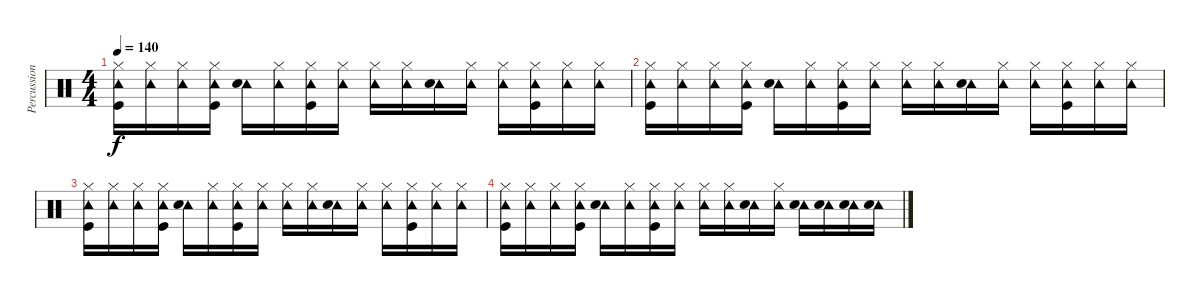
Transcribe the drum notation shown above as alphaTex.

\track ("Percussion" "Percussion") {instrument percussion}
\staff {score}
\articulation defaults
\ts (4 4)
\tempo 140
\clef neutral
\ks c
("Tambourine (hit)" "Hi-Hat (closed)" "Kick (hit)").16{dy f} ("Tambourine (hit)" "Hi-Hat (closed)").16 ("Tambourine (hit)" "Hi-Hat (closed)").16 ("Tambourine (hit)" "Hi-Hat (closed)" "Kick (hit)").16 ("Tambourine (hit)" "Electric Snare (hit)").16 ("Tambourine (hit)" "Hi-Hat (closed)").16 ("Tambourine (hit)" "Hi-Hat (closed)" "Kick (hit)").16 ("Tambourine (hit)" "Hi-Hat (closed)").16 ("Tambourine (hit)" "Hi-Hat (closed)").16 ("Tambourine (hit)" "Hi-Hat (closed)").16 ("Tambourine (hit)" "Electric Snare (hit)").16 ("Tambourine (hit)" "Hi-Hat (closed)").16 ("Tambourine (hit)" "Hi-Hat (closed)").16 ("Tambourine (hit)" "Hi-Hat (closed)" "Kick (hit)").16 ("Tambourine (hit)" "Hi-Hat (closed)").16 ("Tambourine (hit)" "Hi-Hat (closed)").16 |
("Tambourine (hit)" "Hi-Hat (closed)" "Kick (hit)").16 ("Tambourine (hit)" "Hi-Hat (closed)").16 ("Tambourine (hit)" "Hi-Hat (closed)").16 ("Tambourine (hit)" "Hi-Hat (closed)" "Kick (hit)").16 ("Tambourine (hit)" "Electric Snare (hit)").16 ("Tambourine (hit)" "Hi-Hat (closed)").16 ("Tambourine (hit)" "Hi-Hat (closed)" "Kick (hit)").16 ("Tambourine (hit)" "Hi-Hat (closed)").16 ("Tambourine (hit)" "Hi-Hat (closed)").16 ("Tambourine (hit)" "Hi-Hat (closed)").16 ("Tambourine (hit)" "Electric Snare (hit)").16 ("Tambourine (hit)" "Hi-Hat (closed)").16 ("Tambourine (hit)" "Hi-Hat (closed)").16 ("Tambourine (hit)" "Hi-Hat (closed)" "Kick (hit)").16 ("Tambourine (hit)" "Hi-Hat (closed)").16 ("Tambourine (hit)" "Hi-Hat (closed)").16 |
("Tambourine (hit)" "Hi-Hat (closed)" "Kick (hit)").16 ("Tambourine (hit)" "Hi-Hat (closed)").16 ("Tambourine (hit)" "Hi-Hat (closed)").16 ("Tambourine (hit)" "Hi-Hat (closed)" "Kick (hit)").16 ("Tambourine (hit)" "Electric Snare (hit)").16 ("Tambourine (hit)" "Hi-Hat (closed)").16 ("Tambourine (hit)" "Hi-Hat (closed)" "Kick (hit)").16 ("Tambourine (hit)" "Hi-Hat (closed)").16 ("Tambourine (hit)" "Hi-Hat (closed)").16 ("Tambourine (hit)" "Hi-Hat (closed)").16 ("Tambourine (hit)" "Electric Snare (hit)").16 ("Tambourine (hit)" "Hi-Hat (closed)").16 ("Tambourine (hit)" "Hi-Hat (closed)").16 ("Tambourine (hit)" "Hi-Hat (closed)" "Kick (hit)").16 ("Tambourine (hit)" "Hi-Hat (closed)").16 ("Tambourine (hit)" "Hi-Hat (closed)").16 |
("Tambourine (hit)" "Hi-Hat (closed)" "Kick (hit)").16 ("Tambourine (hit)" "Hi-Hat (closed)").16 ("Tambourine (hit)" "Hi-Hat (closed)").16 ("Tambourine (hit)" "Hi-Hat (closed)" "Kick (hit)").16 ("Tambourine (hit)" "Electric Snare (hit)").16 ("Tambourine (hit)" "Hi-Hat (closed)").16 ("Tambourine (hit)" "Hi-Hat (closed)" "Kick (hit)").16 ("Tambourine (hit)" "Hi-Hat (closed)").16 ("Tambourine (hit)" "Hi-Hat (closed)").16 ("Tambourine (hit)" "Hi-Hat (closed)").16 ("Tambourine (hit)" "Electric Snare (hit)").16 ("Tambourine (hit)" "Hi-Hat (closed)").16 ("Tambourine (hit)" "Electric Snare (hit)").16 ("Tambourine (hit)" "Electric Snare (hit)").16 ("Tambourine (hit)" "Electric Snare (hit)").16 ("Tambourine (hit)" "Electric Snare (hit)").16
